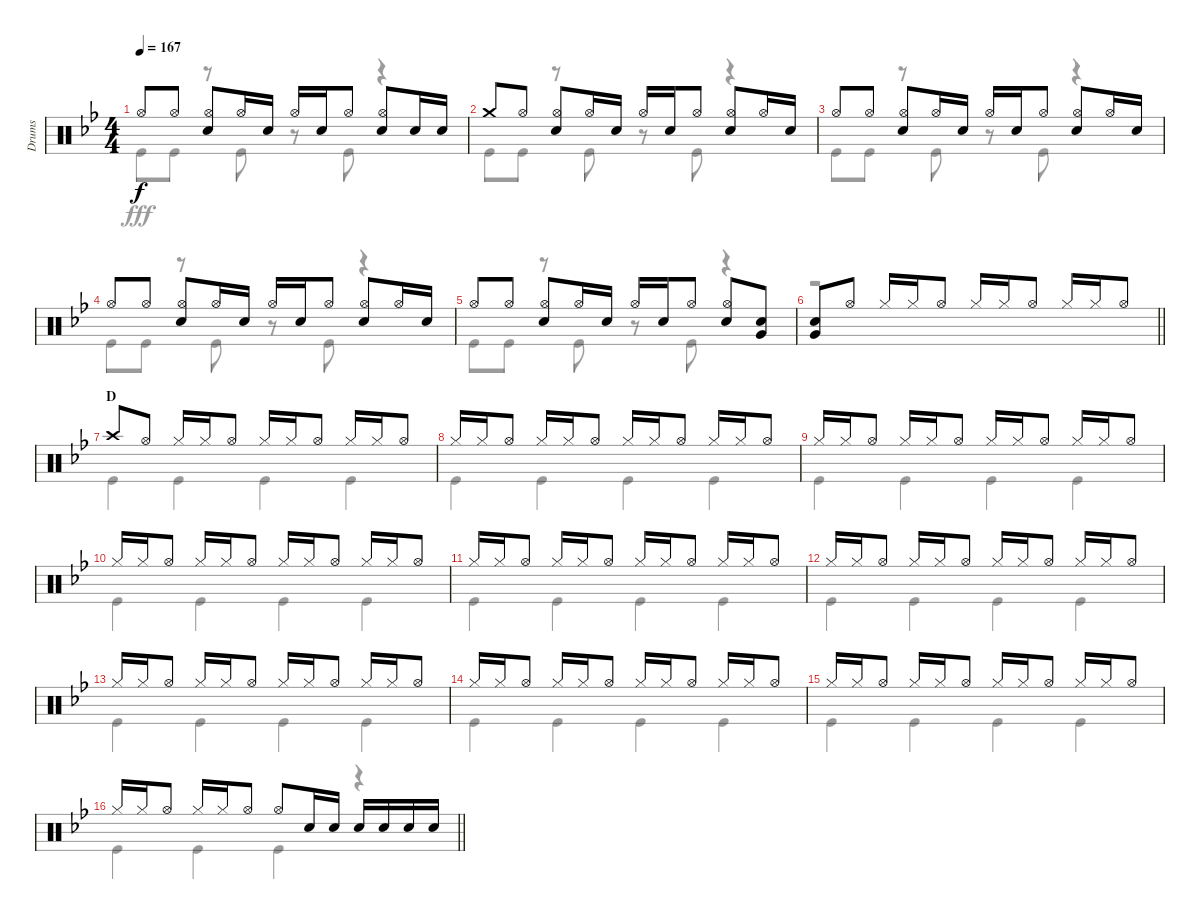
\track ("Drums" "Drums") {instrument percussion}
\staff {score}
\articulation defaults
\voice
\ts (4 4)
\tempo 167
\clef neutral
\ks bb "Hi-Hat (open)".8{dy f} "Hi-Hat (open)".8
("Hi-Hat (open)" "Snare (hit) 2").8 "Hi-Hat (open)".16 "Snare (hit) 2".16 "Hi-Hat (open)".16 "Snare (hit) 2".16 "Hi-Hat (open)".8 ("Hi-Hat (open)" "Snare (hit) 2").8 "Snare (hit) 2".16 "Snare (hit) 2".16 |
"Crash medium (hit)".8 "Hi-Hat (open)".8 ("Hi-Hat (open)" "Snare (hit) 2").8 "Hi-Hat (open)".16 "Snare (hit) 2".16 "Hi-Hat (open)".16 "Snare (hit) 2".16 "Hi-Hat (open)".8 ("Hi-Hat (open)" "Snare (hit) 2").8 "Hi-Hat (open)".16 "Snare (hit) 2".16 |
"Hi-Hat (open)".8 "Hi-Hat (open)".8 ("Hi-Hat (open)" "Snare (hit) 2").8 "Hi-Hat (open)".16 "Snare (hit) 2".16 "Hi-Hat (open)".16 "Snare (hit) 2".16 "Hi-Hat (open)".8 ("Hi-Hat (open)" "Snare (hit) 2").8 "Hi-Hat (open)".16 "Snare (hit) 2".16 |
"Hi-Hat (open)".8 "Hi-Hat (open)".8 ("Hi-Hat (open)" "Snare (hit) 2").8 "Hi-Hat (open)".16 "Snare (hit) 2".16 "Hi-Hat (open)".16 "Snare (hit) 2".16 "Hi-Hat (open)".8 ("Hi-Hat (open)" "Snare (hit) 2").8 "Hi-Hat (open)".16 "Snare (hit) 2".16 |
"Hi-Hat (open)".8 "Hi-Hat (open)".8 ("Hi-Hat (open)" "Snare (hit) 2").8 "Hi-Hat (open)".16 "Snare (hit) 2".16 "Hi-Hat (open)".16 "Snare (hit) 2".16 "Hi-Hat (open)".8 ("Hi-Hat (open)" "Snare (hit) 2").8 ("Snare (hit) 2" "Very Low Tom (hit)").8 |
\barLineRight lightlight
("Snare (hit) 2" "Very Low Tom (hit)").8 "Hi-Hat (open)".8 "Hi-Hat (closed)".16 "Hi-Hat (closed)".16 "Hi-Hat (open)".8 "Hi-Hat (closed)".16 "Hi-Hat (closed)".16 "Hi-Hat (open)".8 "Hi-Hat (closed)".16 "Hi-Hat (closed)".16 "Hi-Hat (open)".8 |
\section ("" "D")
"Crash high (hit)".8 "Hi-Hat (open)".8 "Hi-Hat (closed)".16 "Hi-Hat (closed)".16 "Hi-Hat (open)".8 "Hi-Hat (closed)".16 "Hi-Hat (closed)".16 "Hi-Hat (open)".8 "Hi-Hat (closed)".16 "Hi-Hat (closed)".16 "Hi-Hat (open)".8 |
"Hi-Hat (closed)".16 "Hi-Hat (closed)".16 "Hi-Hat (open)".8 "Hi-Hat (closed)".16 "Hi-Hat (closed)".16 "Hi-Hat (open)".8 "Hi-Hat (closed)".16 "Hi-Hat (closed)".16 "Hi-Hat (open)".8 "Hi-Hat (closed)".16 "Hi-Hat (closed)".16 "Hi-Hat (open)".8 |
"Hi-Hat (closed)".16 "Hi-Hat (closed)".16 "Hi-Hat (open)".8 "Hi-Hat (closed)".16 "Hi-Hat (closed)".16 "Hi-Hat (open)".8 "Hi-Hat (closed)".16 "Hi-Hat (closed)".16 "Hi-Hat (open)".8 "Hi-Hat (closed)".16 "Hi-Hat (closed)".16 "Hi-Hat (open)".8 |
"Hi-Hat (closed)".16 "Hi-Hat (closed)".16 "Hi-Hat (open)".8 "Hi-Hat (closed)".16 "Hi-Hat (closed)".16 "Hi-Hat (open)".8 "Hi-Hat (closed)".16 "Hi-Hat (closed)".16 "Hi-Hat (open)".8 "Hi-Hat (closed)".16 "Hi-Hat (closed)".16 "Hi-Hat (open)".8 |
"Hi-Hat (closed)".16 "Hi-Hat (closed)".16 "Hi-Hat (open)".8 "Hi-Hat (closed)".16 "Hi-Hat (closed)".16 "Hi-Hat (open)".8 "Hi-Hat (closed)".16 "Hi-Hat (closed)".16 "Hi-Hat (open)".8 "Hi-Hat (closed)".16 "Hi-Hat (closed)".16 "Hi-Hat (open)".8 |
"Hi-Hat (closed)".16 "Hi-Hat (closed)".16 "Hi-Hat (open)".8 "Hi-Hat (closed)".16 "Hi-Hat (closed)".16 "Hi-Hat (open)".8 "Hi-Hat (closed)".16 "Hi-Hat (closed)".16 "Hi-Hat (open)".8 "Hi-Hat (closed)".16 "Hi-Hat (closed)".16 "Hi-Hat (open)".8 |
"Hi-Hat (closed)".16 "Hi-Hat (closed)".16 "Hi-Hat (open)".8 "Hi-Hat (closed)".16 "Hi-Hat (closed)".16 "Hi-Hat (open)".8 "Hi-Hat (closed)".16 "Hi-Hat (closed)".16 "Hi-Hat (open)".8 "Hi-Hat (closed)".16 "Hi-Hat (closed)".16 "Hi-Hat (open)".8 |
"Hi-Hat (closed)".16 "Hi-Hat (closed)".16 "Hi-Hat (open)".8 "Hi-Hat (closed)".16 "Hi-Hat (closed)".16 "Hi-Hat (open)".8 "Hi-Hat (closed)".16 "Hi-Hat (closed)".16 "Hi-Hat (open)".8 "Hi-Hat (closed)".16 "Hi-Hat (closed)".16 "Hi-Hat (open)".8 |
"Hi-Hat (closed)".16 "Hi-Hat (closed)".16 "Hi-Hat (open)".8 "Hi-Hat (closed)".16 "Hi-Hat (closed)".16 "Hi-Hat (open)".8 "Hi-Hat (closed)".16 "Hi-Hat (closed)".16 "Hi-Hat (open)".8 "Hi-Hat (closed)".16 "Hi-Hat (closed)".16 "Hi-Hat (open)".8 |
\barLineRight lightlight "Hi-Hat (closed)".16 "Hi-Hat (closed)".16 "Hi-Hat (open)".8 "Hi-Hat (closed)".16 "Hi-Hat (closed)".16 "Hi-Hat (open)".8 "Hi-Hat (open)".8 "Snare (hit) 2".16 "Snare (hit) 2".16 "Snare (hit) 2".16 "Snare (hit) 2".16 "Snare (hit) 2".16 "Snare (hit) 2".16
\voice
\clef neutral
\ottava regular
\simile none
\ks bb "Kick (hit)".8{dy fff} "Kick (hit)".8
r.8 "Kick (hit)".8 r.8 "Kick (hit)".8 r.4 |
"Kick (hit)".8 "Kick (hit)".8 r.8 "Kick (hit)".8 r.8 "Kick (hit)".8 r.4 |
"Kick (hit)".8 "Kick (hit)".8 r.8 "Kick (hit)".8 r.8 "Kick (hit)".8 r.4 |
"Kick (hit)".8 "Kick (hit)".8 r.8 "Kick (hit)".8 r.8 "Kick (hit)".8 r.4 |
"Kick (hit)".8 "Kick (hit)".8 r.8 "Kick (hit)".8 r.8 "Kick (hit)".8 r.4 |
\barLineRight lightlight
r.1 |
"Kick (hit)".4 "Kick (hit)".4 "Kick (hit)".4 "Kick (hit)".4 |
"Kick (hit)".4 "Kick (hit)".4 "Kick (hit)".4 "Kick (hit)".4 |
"Kick (hit)".4 "Kick (hit)".4 "Kick (hit)".4 "Kick (hit)".4 |
"Kick (hit)".4 "Kick (hit)".4 "Kick (hit)".4 "Kick (hit)".4 |
"Kick (hit)".4 "Kick (hit)".4 "Kick (hit)".4 "Kick (hit)".4 |
"Kick (hit)".4 "Kick (hit)".4 "Kick (hit)".4 "Kick (hit)".4 |
"Kick (hit)".4 "Kick (hit)".4 "Kick (hit)".4 "Kick (hit)".4 |
"Kick (hit)".4 "Kick (hit)".4 "Kick (hit)".4 "Kick (hit)".4 |
"Kick (hit)".4 "Kick (hit)".4 "Kick (hit)".4 "Kick (hit)".4 |
\barLineRight lightlight "Kick (hit)".4 "Kick (hit)".4 "Kick (hit)".4
r.4
